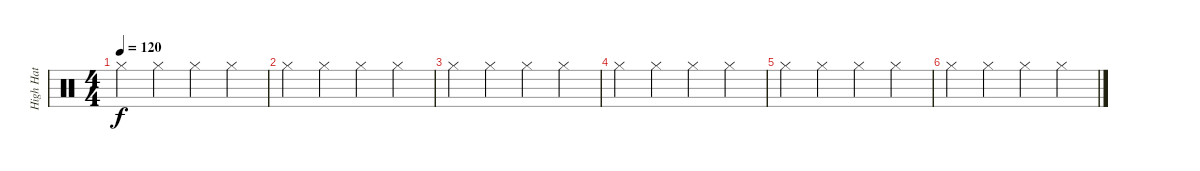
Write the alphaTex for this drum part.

\track ("High Hat" "High Hat") {instrument percussion}
\staff {score}
\articulation defaults
\ts (4 4)
\tempo 120
\clef neutral
\ks c "Hi-Hat (closed)".4{dy f} "Hi-Hat (closed)".4 "Hi-Hat (closed)".4 "Hi-Hat (closed)".4
|
"Hi-Hat (closed)".4 "Hi-Hat (closed)".4 "Hi-Hat (closed)".4 "Hi-Hat (closed)".4 |
"Hi-Hat (closed)".4 "Hi-Hat (closed)".4 "Hi-Hat (closed)".4 "Hi-Hat (closed)".4 |
"Hi-Hat (closed)".4 "Hi-Hat (closed)".4 "Hi-Hat (closed)".4 "Hi-Hat (closed)".4 |
"Hi-Hat (closed)".4 "Hi-Hat (closed)".4 "Hi-Hat (closed)".4 "Hi-Hat (closed)".4 |
"Hi-Hat (closed)".4 "Hi-Hat (closed)".4 "Hi-Hat (closed)".4 "Hi-Hat (closed)".4
